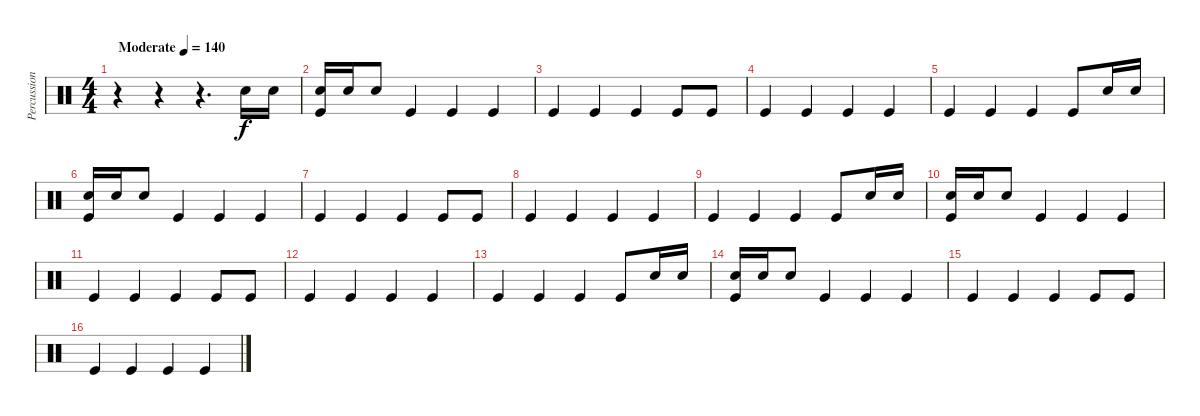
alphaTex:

\track ("Percussion" "Percussion") {instrument percussion}
\staff {score}
\articulation defaults
\ts (4 4)
\tempo (140 "Moderate")
\clef neutral
\ks c
r.4{dy f} r.4 r.4{d} "Snare (hit) 2".16 "Snare (hit) 2".16 |
("Snare (hit) 2" "Kick (hit)").16 "Snare (hit) 2".16 "Snare (hit) 2".8 "Kick (hit)".4 "Kick (hit)".4 "Kick (hit)".4 |
"Kick (hit)".4 "Kick (hit)".4 "Kick (hit)".4 "Kick (hit)".8 "Kick (hit)".8 |
"Kick (hit)".4 "Kick (hit)".4 "Kick (hit)".4 "Kick (hit)".4 |
"Kick (hit)".4 "Kick (hit)".4 "Kick (hit)".4 "Kick (hit)".8 "Snare (hit) 2".16 "Snare (hit) 2".16 |
("Snare (hit) 2" "Kick (hit)").16 "Snare (hit) 2".16 "Snare (hit) 2".8 "Kick (hit)".4 "Kick (hit)".4 "Kick (hit)".4 |
"Kick (hit)".4 "Kick (hit)".4 "Kick (hit)".4 "Kick (hit)".8 "Kick (hit)".8 |
"Kick (hit)".4 "Kick (hit)".4 "Kick (hit)".4 "Kick (hit)".4 |
"Kick (hit)".4 "Kick (hit)".4 "Kick (hit)".4 "Kick (hit)".8 "Snare (hit) 2".16 "Snare (hit) 2".16 |
("Snare (hit) 2" "Kick (hit)").16 "Snare (hit) 2".16 "Snare (hit) 2".8 "Kick (hit)".4 "Kick (hit)".4 "Kick (hit)".4 |
"Kick (hit)".4 "Kick (hit)".4 "Kick (hit)".4 "Kick (hit)".8 "Kick (hit)".8 |
"Kick (hit)".4 "Kick (hit)".4 "Kick (hit)".4 "Kick (hit)".4 |
"Kick (hit)".4 "Kick (hit)".4 "Kick (hit)".4 "Kick (hit)".8 "Snare (hit) 2".16 "Snare (hit) 2".16 |
("Snare (hit) 2" "Kick (hit)").16 "Snare (hit) 2".16 "Snare (hit) 2".8 "Kick (hit)".4 "Kick (hit)".4 "Kick (hit)".4 |
"Kick (hit)".4 "Kick (hit)".4 "Kick (hit)".4 "Kick (hit)".8 "Kick (hit)".8 |
"Kick (hit)".4 "Kick (hit)".4 "Kick (hit)".4 "Kick (hit)".4
